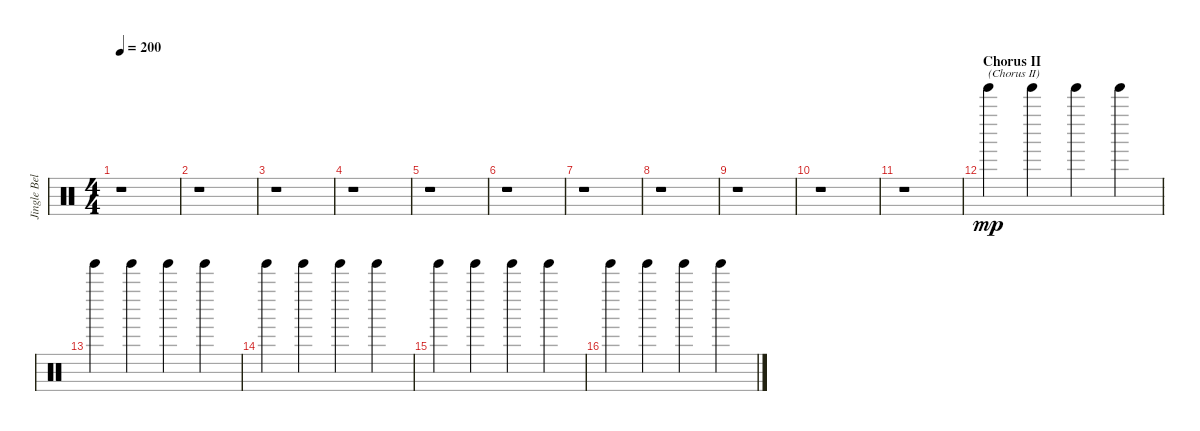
\track ("Jingle Bells" "Jingle Bel") {instrument percussion}
\staff {score}
\articulation defaults
\ts (4 4)
\tempo 200
\clef neutral
\ks c
r.1{dy mp} |
r.1 |
r.1 |
r.1 |
r.1 |
r.1 |
r.1 |
r.1 |
r.1 |
r.1 |
r.1 |
\section ("" "Chorus II")
"Tinkle Bell (hit)".4{txt "(Chorus II)"} "Tinkle Bell (hit)".4 "Tinkle Bell (hit)".4 "Tinkle Bell (hit)".4 |
"Tinkle Bell (hit)".4 "Tinkle Bell (hit)".4 "Tinkle Bell (hit)".4 "Tinkle Bell (hit)".4 |
"Tinkle Bell (hit)".4 "Tinkle Bell (hit)".4 "Tinkle Bell (hit)".4 "Tinkle Bell (hit)".4 |
"Tinkle Bell (hit)".4 "Tinkle Bell (hit)".4 "Tinkle Bell (hit)".4 "Tinkle Bell (hit)".4 |
"Tinkle Bell (hit)".4 "Tinkle Bell (hit)".4 "Tinkle Bell (hit)".4 "Tinkle Bell (hit)".4
